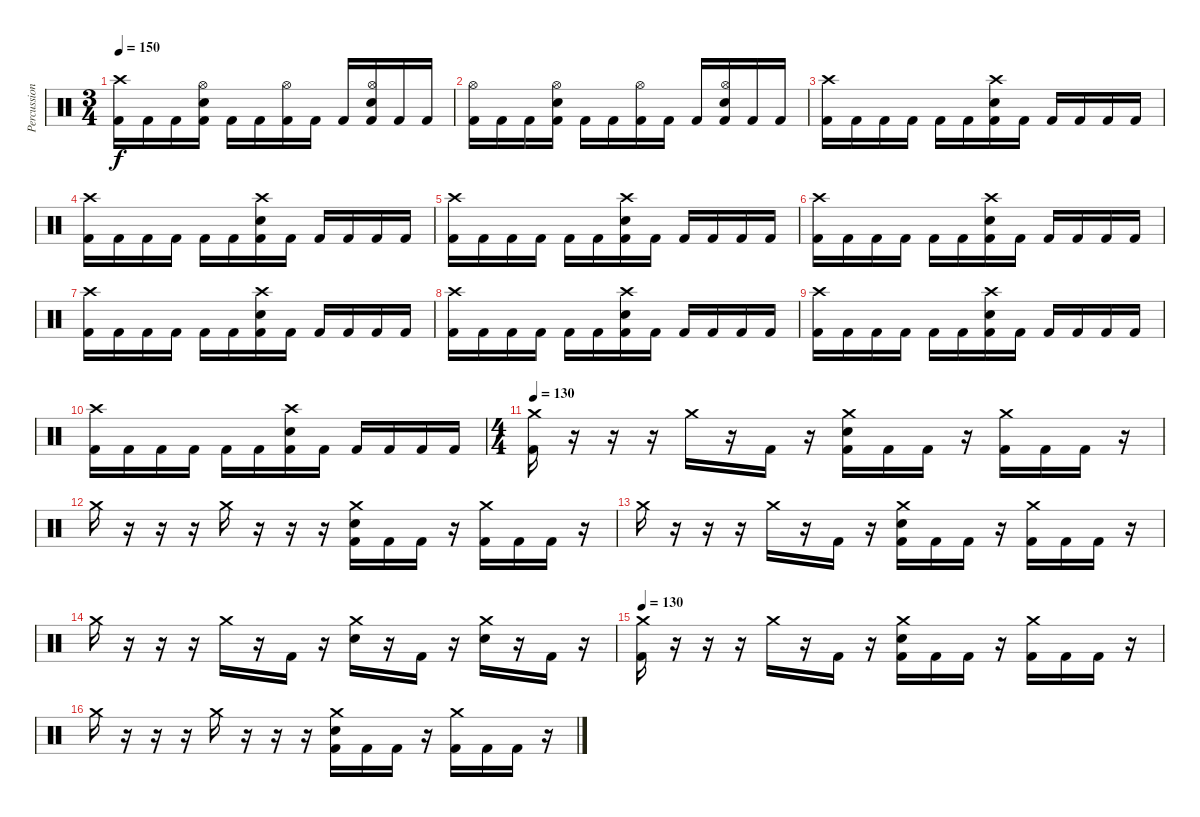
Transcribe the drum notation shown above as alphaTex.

\track ("Percussion" "Percussion") {instrument percussion}
\staff {score}
\articulation defaults
\ts (3 4)
\tempo 150
\clef neutral
\ks c
("Crash high (hit)" "Kick (hit) 2").16{dy f} "Kick (hit) 2".16 "Kick (hit) 2".16 ("Hi-Hat (open)" "Electric Snare (hit)" "Kick (hit) 2").16 "Kick (hit) 2".16 "Kick (hit) 2".16 ("Hi-Hat (open)" "Kick (hit) 2").16 "Kick (hit) 2".16 "Kick (hit) 2".16 ("Hi-Hat (open)" "Electric Snare (hit)" "Kick (hit) 2").16 "Kick (hit) 2".16 "Kick (hit) 2".16 |
("Hi-Hat (open)" "Kick (hit) 2").16 "Kick (hit) 2".16 "Kick (hit) 2".16 ("Hi-Hat (open)" "Electric Snare (hit)" "Kick (hit) 2").16 "Kick (hit) 2".16 "Kick (hit) 2".16 ("Hi-Hat (open)" "Kick (hit) 2").16 "Kick (hit) 2".16 "Kick (hit) 2".16 ("Hi-Hat (open)" "Electric Snare (hit)" "Kick (hit) 2").16 "Kick (hit) 2".16 "Kick (hit) 2".16 |
("Crash high (hit)" "Kick (hit) 2").16 "Kick (hit) 2".16 "Kick (hit) 2".16 "Kick (hit) 2".16 "Kick (hit) 2".16 "Kick (hit) 2".16 ("Crash high (hit)" "Electric Snare (hit)" "Kick (hit) 2").16 "Kick (hit) 2".16 "Kick (hit) 2".16 "Kick (hit) 2".16 "Kick (hit) 2".16 "Kick (hit) 2".16 |
("Crash high (hit)" "Kick (hit) 2").16 "Kick (hit) 2".16 "Kick (hit) 2".16 "Kick (hit) 2".16 "Kick (hit) 2".16 "Kick (hit) 2".16 ("Crash high (hit)" "Electric Snare (hit)" "Kick (hit) 2").16 "Kick (hit) 2".16 "Kick (hit) 2".16 "Kick (hit) 2".16 "Kick (hit) 2".16 "Kick (hit) 2".16 |
("Crash high (hit)" "Kick (hit) 2").16 "Kick (hit) 2".16 "Kick (hit) 2".16 "Kick (hit) 2".16 "Kick (hit) 2".16 "Kick (hit) 2".16 ("Crash high (hit)" "Electric Snare (hit)" "Kick (hit) 2").16 "Kick (hit) 2".16 "Kick (hit) 2".16 "Kick (hit) 2".16 "Kick (hit) 2".16 "Kick (hit) 2".16 |
("Crash high (hit)" "Kick (hit) 2").16 "Kick (hit) 2".16 "Kick (hit) 2".16 "Kick (hit) 2".16 "Kick (hit) 2".16 "Kick (hit) 2".16 ("Crash high (hit)" "Electric Snare (hit)" "Kick (hit) 2").16 "Kick (hit) 2".16 "Kick (hit) 2".16 "Kick (hit) 2".16 "Kick (hit) 2".16 "Kick (hit) 2".16 |
("Crash high (hit)" "Kick (hit) 2").16 "Kick (hit) 2".16 "Kick (hit) 2".16 "Kick (hit) 2".16 "Kick (hit) 2".16 "Kick (hit) 2".16 ("Crash high (hit)" "Electric Snare (hit)" "Kick (hit) 2").16 "Kick (hit) 2".16 "Kick (hit) 2".16 "Kick (hit) 2".16 "Kick (hit) 2".16 "Kick (hit) 2".16 |
("Crash high (hit)" "Kick (hit) 2").16 "Kick (hit) 2".16 "Kick (hit) 2".16 "Kick (hit) 2".16 "Kick (hit) 2".16 "Kick (hit) 2".16 ("Crash high (hit)" "Electric Snare (hit)" "Kick (hit) 2").16 "Kick (hit) 2".16 "Kick (hit) 2".16 "Kick (hit) 2".16 "Kick (hit) 2".16 "Kick (hit) 2".16 |
("Crash high (hit)" "Kick (hit) 2").16 "Kick (hit) 2".16 "Kick (hit) 2".16 "Kick (hit) 2".16 "Kick (hit) 2".16 "Kick (hit) 2".16 ("Crash high (hit)" "Electric Snare (hit)" "Kick (hit) 2").16 "Kick (hit) 2".16 "Kick (hit) 2".16 "Kick (hit) 2".16 "Kick (hit) 2".16 "Kick (hit) 2".16 |
("Crash high (hit)" "Kick (hit) 2").16 "Kick (hit) 2".16 "Kick (hit) 2".16 "Kick (hit) 2".16 "Kick (hit) 2".16 "Kick (hit) 2".16 ("Crash high (hit)" "Electric Snare (hit)" "Kick (hit) 2").16 "Kick (hit) 2".16 "Kick (hit) 2".16 "Kick (hit) 2".16 "Kick (hit) 2".16 "Kick (hit) 2".16 |
\ts (4 4)
\tempo 130
("Crash medium (hit)" "Kick (hit) 2").16 r.16 r.16 r.16 "Crash medium (hit)".16 r.16 "Kick (hit) 2".16 r.16 ("Crash medium (hit)" "Electric Snare (hit)" "Kick (hit) 2").16 "Kick (hit) 2".16 "Kick (hit) 2".16 r.16 ("Crash medium (hit)" "Kick (hit) 2").16 "Kick (hit) 2".16 "Kick (hit) 2".16 r.16 |
"Crash medium (hit)".16 r.16 r.16 r.16 "Crash medium (hit)".16 r.16 r.16 r.16 ("Crash medium (hit)" "Electric Snare (hit)" "Kick (hit) 2").16 "Kick (hit) 2".16 "Kick (hit) 2".16 r.16 ("Crash medium (hit)" "Kick (hit) 2").16 "Kick (hit) 2".16 "Kick (hit) 2".16 r.16 |
"Crash medium (hit)".16 r.16 r.16 r.16 "Crash medium (hit)".16 r.16 "Kick (hit) 2".16 r.16 ("Crash medium (hit)" "Electric Snare (hit)" "Kick (hit) 2").16 "Kick (hit) 2".16 "Kick (hit) 2".16 r.16 ("Crash medium (hit)" "Kick (hit) 2").16 "Kick (hit) 2".16 "Kick (hit) 2".16 r.16 |
"Crash medium (hit)".16 r.16 r.16 r.16 "Crash medium (hit)".16 r.16 "Kick (hit) 2".16 r.16 ("Crash medium (hit)" "Electric Snare (hit)").16 r.16 "Kick (hit) 2".16 r.16 ("Crash medium (hit)" "Electric Snare (hit)").16 r.16 "Kick (hit) 2".16 r.16 |
\tempo 130
("Crash medium (hit)" "Kick (hit) 2").16 r.16 r.16 r.16 "Crash medium (hit)".16 r.16 "Kick (hit) 2".16 r.16 ("Crash medium (hit)" "Electric Snare (hit)" "Kick (hit) 2").16 "Kick (hit) 2".16 "Kick (hit) 2".16 r.16 ("Crash medium (hit)" "Kick (hit) 2").16 "Kick (hit) 2".16 "Kick (hit) 2".16 r.16 |
"Crash medium (hit)".16 r.16 r.16 r.16 "Crash medium (hit)".16 r.16 r.16 r.16 ("Crash medium (hit)" "Electric Snare (hit)" "Kick (hit) 2").16 "Kick (hit) 2".16 "Kick (hit) 2".16 r.16 ("Crash medium (hit)" "Kick (hit) 2").16 "Kick (hit) 2".16 "Kick (hit) 2".16 r.16
